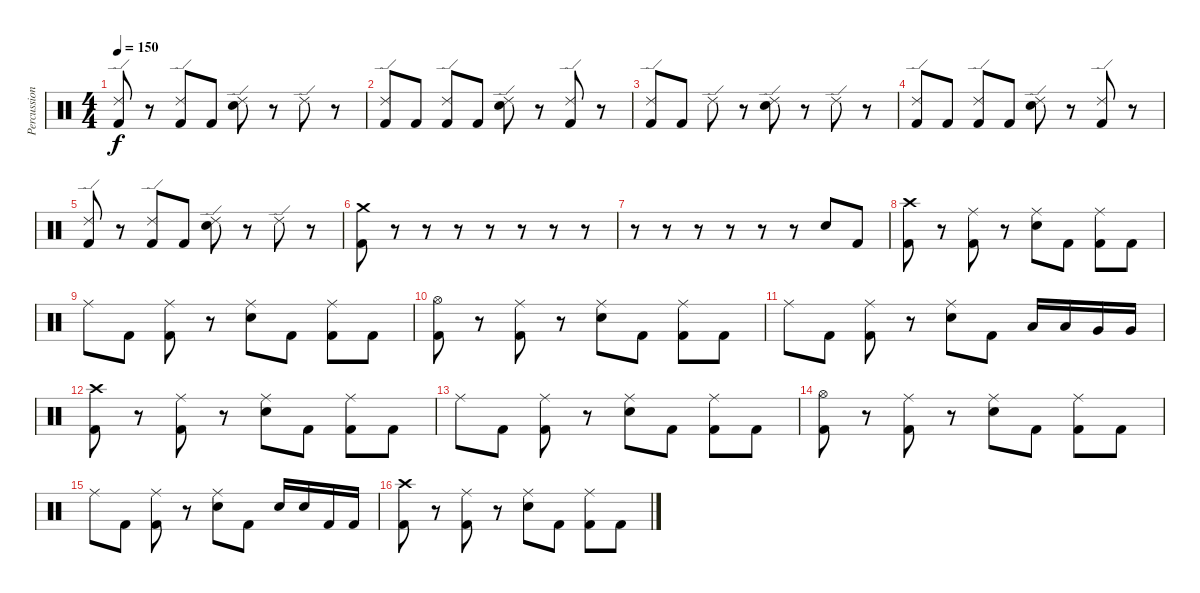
\track ("Percussion" "Percussion") {instrument percussion}
\staff {score}
\articulation defaults
\ts (4 4)
\tempo 150
\clef neutral
\ks c
("Ride (edge) 2" "Kick (hit) 2").8{dy f} r.8 ("Ride (edge) 2" "Kick (hit) 2").8 "Kick (hit) 2".8 ("Ride (edge) 2" "Electric Snare (hit)").8 r.8 "Ride (edge) 2".8 r.8 |
("Ride (edge) 2" "Kick (hit) 2").8 "Kick (hit) 2".8 ("Ride (edge) 2" "Kick (hit) 2").8 "Kick (hit) 2".8 ("Ride (edge) 2" "Electric Snare (hit)").8 r.8 ("Ride (edge) 2" "Kick (hit) 2").8 r.8 |
("Ride (edge) 2" "Kick (hit) 2").8 "Kick (hit) 2".8 "Ride (edge) 2".8 r.8 ("Ride (edge) 2" "Electric Snare (hit)").8 r.8 "Ride (edge) 2".8 r.8 |
("Ride (edge) 2" "Kick (hit) 2").8 "Kick (hit) 2".8 ("Ride (edge) 2" "Kick (hit) 2").8 "Kick (hit) 2".8 ("Ride (edge) 2" "Electric Snare (hit)").8 r.8 ("Ride (edge) 2" "Kick (hit) 2").8 r.8 |
("Ride (edge) 2" "Kick (hit) 2").8 r.8 ("Ride (edge) 2" "Kick (hit) 2").8 "Kick (hit) 2".8 ("Ride (edge) 2" "Electric Snare (hit)").8 r.8 "Ride (edge) 2".8 r.8 |
("Crash medium (hit)" "Kick (hit) 2").8 r.8 r.8 r.8 r.8 r.8 r.8 r.8 |
r.8 r.8 r.8 r.8 r.8 r.8 "Electric Snare (hit)".8 "Kick (hit) 2".8 |
("Crash high (hit)" "Kick (hit) 2").8 r.8 ("Ride (middle)" "Kick (hit) 2").8 r.8 ("Ride (middle)" "Electric Snare (hit)").8 "Kick (hit) 2".8 ("Ride (middle)" "Kick (hit) 2").8 "Kick (hit) 2".8 |
"Ride (middle)".8 "Kick (hit) 2".8 ("Ride (middle)" "Kick (hit) 2").8 r.8 ("Ride (middle)" "Electric Snare (hit)").8 "Kick (hit) 2".8 ("Ride (middle)" "Kick (hit) 2").8 "Kick (hit) 2".8 |
("Hi-Hat (open)" "Kick (hit) 2").8 r.8 ("Ride (middle)" "Kick (hit) 2").8 r.8 ("Ride (middle)" "Electric Snare (hit)").8 "Kick (hit) 2".8 ("Ride (middle)" "Kick (hit) 2").8 "Kick (hit) 2".8 |
"Ride (middle)".8 "Kick (hit) 2".8 ("Ride (middle)" "Kick (hit) 2").8 r.8 ("Ride (middle)" "Electric Snare (hit)").8 "Kick (hit) 2".8 "Low Tom (hit)".16 "Low Tom (hit)".16 "Very Low Tom (hit)".16 "Very Low Tom (hit)".16 |
("Crash high (hit)" "Kick (hit) 2").8 r.8 ("Ride (middle)" "Kick (hit) 2").8 r.8 ("Ride (middle)" "Electric Snare (hit)").8 "Kick (hit) 2".8 ("Ride (middle)" "Kick (hit) 2").8 "Kick (hit) 2".8 |
"Ride (middle)".8 "Kick (hit) 2".8 ("Ride (middle)" "Kick (hit) 2").8 r.8 ("Ride (middle)" "Electric Snare (hit)").8 "Kick (hit) 2".8 ("Ride (middle)" "Kick (hit) 2").8 "Kick (hit) 2".8 |
("Hi-Hat (open)" "Kick (hit) 2").8 r.8 ("Ride (middle)" "Kick (hit) 2").8 r.8 ("Ride (middle)" "Electric Snare (hit)").8 "Kick (hit) 2".8 ("Ride (middle)" "Kick (hit) 2").8 "Kick (hit) 2".8 |
"Ride (middle)".8 "Kick (hit) 2".8 ("Ride (middle)" "Kick (hit) 2").8 r.8 ("Ride (middle)" "Electric Snare (hit)").8 "Kick (hit) 2".8 "Electric Snare (hit)".16 "Electric Snare (hit)".16 "Kick (hit) 2".16 "Kick (hit) 2".16 |
("Crash high (hit)" "Kick (hit) 2").8 r.8 ("Ride (middle)" "Kick (hit) 2").8 r.8 ("Ride (middle)" "Electric Snare (hit)").8 "Kick (hit) 2".8 ("Ride (middle)" "Kick (hit) 2").8 "Kick (hit) 2".8
